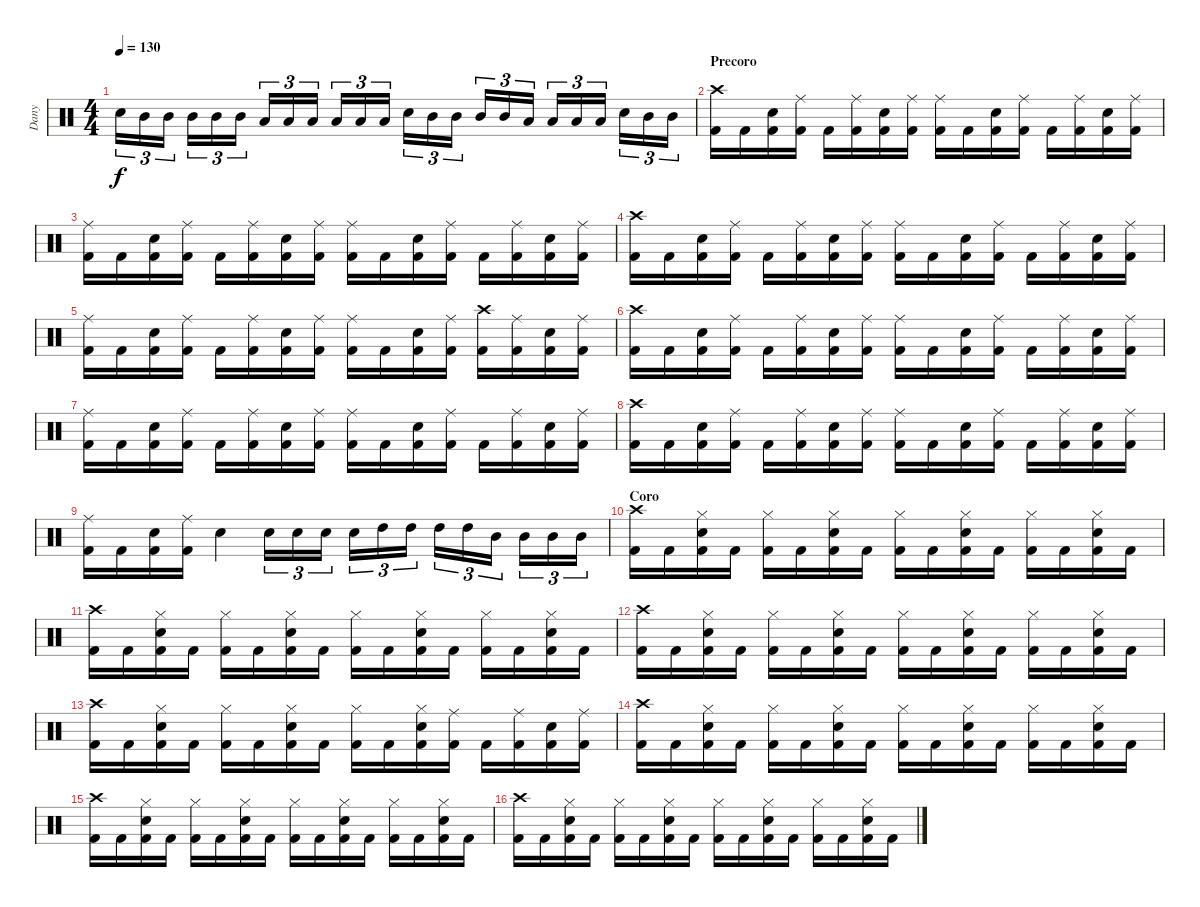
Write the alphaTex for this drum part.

\track ("Dany" "Dany") {instrument percussion}
\staff {score}
\articulation defaults
\ts (4 4)
\tempo 130
\clef neutral
\ks c "Electric Snare (hit)".16{tu (3 2) dy f} "Mid Tom (hit)".16{tu (3 2)} "Mid Tom (hit)".16{tu (3 2)} "Mid Tom (hit)".16{tu (3 2)} "Mid Tom (hit)".16{tu (3 2)} "Mid Tom (hit)".16{tu (3 2)} "Low Tom (hit)".16{tu (3 2)} "Low Tom (hit)".16{tu (3 2)} "Low Tom (hit)".16{tu (3 2)} "Low Tom (hit)".16{tu (3 2)} "Low Tom (hit)".16{tu (3 2)} "Low Tom (hit)".16{tu (3 2)} "Electric Snare (hit)".16{tu (3 2)} "Mid Tom (hit)".16{tu (3 2)} "Mid Tom (hit)".16{tu (3 2)} "Mid Tom (hit)".16{tu (3 2)} "Mid Tom (hit)".16{tu (3 2)} "Low Tom (hit)".16{tu (3 2)} "Low Tom (hit)".16{tu (3 2)} "Low Tom (hit)".16{tu (3 2)} "Low Tom (hit)".16{tu (3 2)} "Electric Snare (hit)".16{tu (3 2)} "Mid Tom (hit)".16{tu (3 2)} "Mid Tom (hit)".16{tu (3 2)}
|
\section ("" "Precoro")
("Kick (hit) 2" "Crash high (hit)").16 "Kick (hit) 2".16 ("Kick (hit) 2" "Electric Snare (hit)").16 ("Kick (hit) 2" "Ride (middle)").16 "Kick (hit) 2".16 ("Kick (hit) 2" "Ride (middle)").16 ("Kick (hit) 2" "Electric Snare (hit)").16 ("Kick (hit) 2" "Ride (middle)").16 ("Kick (hit) 2" "Ride (middle)").16 "Kick (hit) 2".16 ("Kick (hit) 2" "Electric Snare (hit)").16 ("Kick (hit) 2" "Ride (middle)").16 "Kick (hit) 2".16 ("Kick (hit) 2" "Ride (middle)").16 ("Kick (hit) 2" "Electric Snare (hit)").16 ("Kick (hit) 2" "Ride (middle)").16 |
("Kick (hit) 2" "Ride (middle)").16 "Kick (hit) 2".16 ("Kick (hit) 2" "Electric Snare (hit)").16 ("Kick (hit) 2" "Ride (middle)").16 "Kick (hit) 2".16 ("Kick (hit) 2" "Ride (middle)").16 ("Kick (hit) 2" "Electric Snare (hit)").16 ("Kick (hit) 2" "Ride (middle)").16 ("Kick (hit) 2" "Ride (middle)").16 "Kick (hit) 2".16 ("Kick (hit) 2" "Electric Snare (hit)").16 ("Kick (hit) 2" "Ride (middle)").16 "Kick (hit) 2".16 ("Kick (hit) 2" "Ride (middle)").16 ("Kick (hit) 2" "Electric Snare (hit)").16 ("Kick (hit) 2" "Ride (middle)").16 |
("Kick (hit) 2" "Crash high (hit)").16 "Kick (hit) 2".16 ("Kick (hit) 2" "Electric Snare (hit)").16 ("Kick (hit) 2" "Ride (middle)").16 "Kick (hit) 2".16 ("Kick (hit) 2" "Ride (middle)").16 ("Kick (hit) 2" "Electric Snare (hit)").16 ("Kick (hit) 2" "Ride (middle)").16 ("Kick (hit) 2" "Ride (middle)").16 "Kick (hit) 2".16 ("Kick (hit) 2" "Electric Snare (hit)").16 ("Kick (hit) 2" "Ride (middle)").16 "Kick (hit) 2".16 ("Kick (hit) 2" "Ride (middle)").16 ("Kick (hit) 2" "Electric Snare (hit)").16 ("Kick (hit) 2" "Ride (middle)").16 |
("Kick (hit) 2" "Ride (middle)").16 "Kick (hit) 2".16 ("Kick (hit) 2" "Electric Snare (hit)").16 ("Kick (hit) 2" "Ride (middle)").16 "Kick (hit) 2".16 ("Kick (hit) 2" "Ride (middle)").16 ("Kick (hit) 2" "Electric Snare (hit)").16 ("Kick (hit) 2" "Ride (middle)").16 ("Kick (hit) 2" "Ride (middle)").16 "Kick (hit) 2".16 ("Kick (hit) 2" "Electric Snare (hit)").16 ("Kick (hit) 2" "Ride (middle)").16 ("Kick (hit) 2" "Crash high (hit)").16 ("Kick (hit) 2" "Ride (middle)").16 ("Kick (hit) 2" "Electric Snare (hit)").16 ("Kick (hit) 2" "Ride (middle)").16 |
("Kick (hit) 2" "Crash high (hit)").16 "Kick (hit) 2".16 ("Kick (hit) 2" "Electric Snare (hit)").16 ("Kick (hit) 2" "Ride (middle)").16 "Kick (hit) 2".16 ("Kick (hit) 2" "Ride (middle)").16 ("Kick (hit) 2" "Electric Snare (hit)").16 ("Kick (hit) 2" "Ride (middle)").16 ("Kick (hit) 2" "Ride (middle)").16 "Kick (hit) 2".16 ("Kick (hit) 2" "Electric Snare (hit)").16 ("Kick (hit) 2" "Ride (middle)").16 "Kick (hit) 2".16 ("Kick (hit) 2" "Ride (middle)").16 ("Kick (hit) 2" "Electric Snare (hit)").16 ("Kick (hit) 2" "Ride (middle)").16 |
("Kick (hit) 2" "Ride (middle)").16 "Kick (hit) 2".16 ("Kick (hit) 2" "Electric Snare (hit)").16 ("Kick (hit) 2" "Ride (middle)").16 "Kick (hit) 2".16 ("Kick (hit) 2" "Ride (middle)").16 ("Kick (hit) 2" "Electric Snare (hit)").16 ("Kick (hit) 2" "Ride (middle)").16 ("Kick (hit) 2" "Ride (middle)").16 "Kick (hit) 2".16 ("Kick (hit) 2" "Electric Snare (hit)").16 ("Kick (hit) 2" "Ride (middle)").16 "Kick (hit) 2".16 ("Kick (hit) 2" "Ride (middle)").16 ("Kick (hit) 2" "Electric Snare (hit)").16 ("Kick (hit) 2" "Ride (middle)").16 |
("Kick (hit) 2" "Crash high (hit)").16 "Kick (hit) 2".16 ("Kick (hit) 2" "Electric Snare (hit)").16 ("Kick (hit) 2" "Ride (middle)").16 "Kick (hit) 2".16 ("Kick (hit) 2" "Ride (middle)").16 ("Kick (hit) 2" "Electric Snare (hit)").16 ("Kick (hit) 2" "Ride (middle)").16 ("Kick (hit) 2" "Ride (middle)").16 "Kick (hit) 2".16 ("Kick (hit) 2" "Electric Snare (hit)").16 ("Kick (hit) 2" "Ride (middle)").16 "Kick (hit) 2".16 ("Kick (hit) 2" "Ride (middle)").16 ("Kick (hit) 2" "Electric Snare (hit)").16 ("Kick (hit) 2" "Ride (middle)").16 |
("Kick (hit) 2" "Ride (middle)").16 "Kick (hit) 2".16 ("Kick (hit) 2" "Electric Snare (hit)").16 ("Kick (hit) 2" "Ride (middle)").16 "Electric Snare (hit)".4 "Electric Snare (hit)".16{tu (3 2)} "Electric Snare (hit)".16{tu (3 2)} "Electric Snare (hit)".16{tu (3 2)} "Electric Snare (hit)".16{tu (3 2)} "High Tom (hit)".16{tu (3 2)} "High Tom (hit)".16{tu (3 2)} "High Tom (hit)".16{tu (3 2)} "High Tom (hit)".16{tu (3 2)} "Mid Tom (hit)".16{tu (3 2)} "Mid Tom (hit)".16{tu (3 2)} "Mid Tom (hit)".16{tu (3 2)} "Mid Tom (hit)".16{tu (3 2)} |
\section ("" "Coro")
("Kick (hit) 2" "Crash high (hit)").16 "Kick (hit) 2".16 ("Kick (hit) 2" "Electric Snare (hit)" "Hi-Hat (closed)").16 "Kick (hit) 2".16 ("Kick (hit) 2" "Hi-Hat (closed)").16 "Kick (hit) 2".16 ("Kick (hit) 2" "Electric Snare (hit)" "Hi-Hat (closed)").16 "Kick (hit) 2".16 ("Kick (hit) 2" "Hi-Hat (closed)").16 "Kick (hit) 2".16 ("Kick (hit) 2" "Electric Snare (hit)" "Hi-Hat (closed)").16 "Kick (hit) 2".16 ("Kick (hit) 2" "Hi-Hat (closed)").16 "Kick (hit) 2".16 ("Kick (hit) 2" "Electric Snare (hit)" "Hi-Hat (closed)").16 "Kick (hit) 2".16 |
("Kick (hit) 2" "Crash high (hit)").16 "Kick (hit) 2".16 ("Kick (hit) 2" "Electric Snare (hit)" "Hi-Hat (closed)").16 "Kick (hit) 2".16 ("Kick (hit) 2" "Hi-Hat (closed)").16 "Kick (hit) 2".16 ("Kick (hit) 2" "Electric Snare (hit)" "Hi-Hat (closed)").16 "Kick (hit) 2".16 ("Kick (hit) 2" "Hi-Hat (closed)").16 "Kick (hit) 2".16 ("Kick (hit) 2" "Electric Snare (hit)" "Hi-Hat (closed)").16 "Kick (hit) 2".16 ("Kick (hit) 2" "Hi-Hat (closed)").16 "Kick (hit) 2".16 ("Kick (hit) 2" "Electric Snare (hit)" "Hi-Hat (closed)").16 "Kick (hit) 2".16 |
("Kick (hit) 2" "Crash high (hit)").16 "Kick (hit) 2".16 ("Kick (hit) 2" "Electric Snare (hit)" "Hi-Hat (closed)").16 "Kick (hit) 2".16 ("Kick (hit) 2" "Hi-Hat (closed)").16 "Kick (hit) 2".16 ("Kick (hit) 2" "Electric Snare (hit)" "Hi-Hat (closed)").16 "Kick (hit) 2".16 ("Kick (hit) 2" "Hi-Hat (closed)").16 "Kick (hit) 2".16 ("Kick (hit) 2" "Electric Snare (hit)" "Hi-Hat (closed)").16 "Kick (hit) 2".16 ("Kick (hit) 2" "Hi-Hat (closed)").16 "Kick (hit) 2".16 ("Kick (hit) 2" "Electric Snare (hit)" "Hi-Hat (closed)").16 "Kick (hit) 2".16 |
("Kick (hit) 2" "Crash high (hit)").16 "Kick (hit) 2".16 ("Kick (hit) 2" "Electric Snare (hit)" "Hi-Hat (closed)").16 "Kick (hit) 2".16 ("Kick (hit) 2" "Hi-Hat (closed)").16 "Kick (hit) 2".16 ("Kick (hit) 2" "Electric Snare (hit)" "Hi-Hat (closed)").16 "Kick (hit) 2".16 ("Kick (hit) 2" "Hi-Hat (closed)").16 "Kick (hit) 2".16 ("Kick (hit) 2" "Electric Snare (hit)" "Hi-Hat (closed)").16 ("Kick (hit) 2" "Ride (middle)").16 "Kick (hit) 2".16 ("Kick (hit) 2" "Ride (middle)").16 ("Kick (hit) 2" "Electric Snare (hit)").16 ("Kick (hit) 2" "Ride (middle)").16 |
("Kick (hit) 2" "Crash high (hit)").16 "Kick (hit) 2".16 ("Kick (hit) 2" "Electric Snare (hit)" "Hi-Hat (closed)").16 "Kick (hit) 2".16 ("Kick (hit) 2" "Hi-Hat (closed)").16 "Kick (hit) 2".16 ("Kick (hit) 2" "Electric Snare (hit)" "Hi-Hat (closed)").16 "Kick (hit) 2".16 ("Kick (hit) 2" "Hi-Hat (closed)").16 "Kick (hit) 2".16 ("Kick (hit) 2" "Electric Snare (hit)" "Hi-Hat (closed)").16 "Kick (hit) 2".16 ("Kick (hit) 2" "Hi-Hat (closed)").16 "Kick (hit) 2".16 ("Kick (hit) 2" "Electric Snare (hit)" "Hi-Hat (closed)").16 "Kick (hit) 2".16 |
("Kick (hit) 2" "Crash high (hit)").16 "Kick (hit) 2".16 ("Kick (hit) 2" "Electric Snare (hit)" "Hi-Hat (closed)").16 "Kick (hit) 2".16 ("Kick (hit) 2" "Hi-Hat (closed)").16 "Kick (hit) 2".16 ("Kick (hit) 2" "Electric Snare (hit)" "Hi-Hat (closed)").16 "Kick (hit) 2".16 ("Kick (hit) 2" "Hi-Hat (closed)").16 "Kick (hit) 2".16 ("Kick (hit) 2" "Electric Snare (hit)" "Hi-Hat (closed)").16 "Kick (hit) 2".16 ("Kick (hit) 2" "Hi-Hat (closed)").16 "Kick (hit) 2".16 ("Kick (hit) 2" "Electric Snare (hit)" "Hi-Hat (closed)").16 "Kick (hit) 2".16 |
("Kick (hit) 2" "Crash high (hit)").16 "Kick (hit) 2".16 ("Kick (hit) 2" "Electric Snare (hit)" "Hi-Hat (closed)").16 "Kick (hit) 2".16 ("Kick (hit) 2" "Hi-Hat (closed)").16 "Kick (hit) 2".16 ("Kick (hit) 2" "Electric Snare (hit)" "Hi-Hat (closed)").16 "Kick (hit) 2".16 ("Kick (hit) 2" "Hi-Hat (closed)").16 "Kick (hit) 2".16 ("Kick (hit) 2" "Electric Snare (hit)" "Hi-Hat (closed)").16 "Kick (hit) 2".16 ("Kick (hit) 2" "Hi-Hat (closed)").16 "Kick (hit) 2".16 ("Kick (hit) 2" "Electric Snare (hit)" "Hi-Hat (closed)").16 "Kick (hit) 2".16
